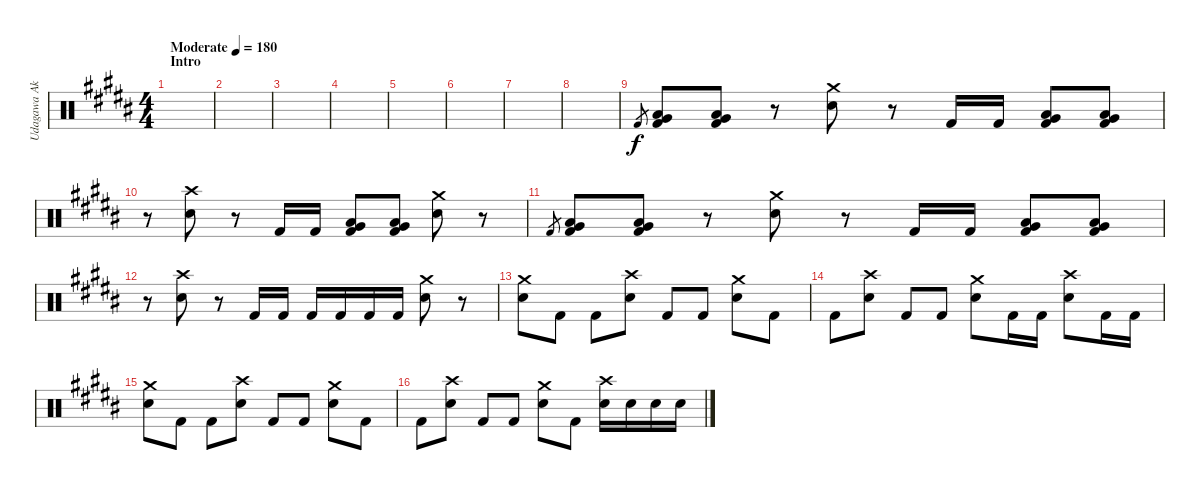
\track ("Udagawa Ako" "Udagawa Ak") {instrument percussion}
\staff {score}
\articulation defaults
\ts (4 4)
\section ("" "Intro")
\tempo (180 "Moderate")
\clef neutral
\ks b
|
|
|
|
|
|
|
|
"Kick (hit) 2".8{gr} ("Very Low Tom (hit)" "Low Floor Tom (hit)" "Kick (hit) 2").8{bu 60} ("Very Low Tom (hit)" "Low Floor Tom (hit)" "Kick (hit) 2").8{bu 60} r.8 ("Crash medium (hit)" "Electric Snare (hit)").8 r.8 "Kick (hit) 2".16 "Kick (hit) 2".16 ("Very Low Tom (hit)" "Low Floor Tom (hit)" "Kick (hit) 2").8{bu 60} ("Very Low Tom (hit)" "Low Floor Tom (hit)" "Kick (hit) 2").8{bu 60} |
r.8 ("Crash high (hit)" "Electric Snare (hit)").8 r.8 "Kick (hit) 2".16 "Kick (hit) 2".16 ("Very Low Tom (hit)" "Low Floor Tom (hit)" "Kick (hit) 2").8{bu 60} ("Very Low Tom (hit)" "Low Floor Tom (hit)" "Kick (hit) 2").8{bu 60} ("Crash medium (hit)" "Electric Snare (hit)").8 r.8 |
"Kick (hit) 2".8{gr} ("Very Low Tom (hit)" "Low Floor Tom (hit)" "Kick (hit) 2").8{bu 60} ("Very Low Tom (hit)" "Low Floor Tom (hit)" "Kick (hit) 2").8{bu 60} r.8 ("Crash medium (hit)" "Electric Snare (hit)").8 r.8 "Kick (hit) 2".16 "Kick (hit) 2".16 ("Very Low Tom (hit)" "Low Floor Tom (hit)" "Kick (hit) 2").8{bu 60} ("Very Low Tom (hit)" "Low Floor Tom (hit)" "Kick (hit) 2").8{bu 60} |
r.8 ("Crash high (hit)" "Electric Snare (hit)").8 r.8 "Kick (hit) 2".16 "Kick (hit) 2".16 "Kick (hit) 2".16 "Kick (hit) 2".16 "Kick (hit) 2".16 "Kick (hit) 2".16 ("Crash medium (hit)" "Electric Snare (hit)").8 r.8 |
("Crash medium (hit)" "Electric Snare (hit)").8 "Kick (hit) 2".8 "Kick (hit) 2".8 ("Crash high (hit)" "Electric Snare (hit)").8 "Kick (hit) 2".8 "Kick (hit) 2".8 ("Crash medium (hit)" "Electric Snare (hit)").8 "Kick (hit) 2".8 |
"Kick (hit) 2".8 ("Crash high (hit)" "Electric Snare (hit)").8 "Kick (hit) 2".8 "Kick (hit) 2".8 ("Crash medium (hit)" "Electric Snare (hit)").8 "Kick (hit) 2".16 "Kick (hit) 2".16 ("Crash high (hit)" "Electric Snare (hit)").8 "Kick (hit) 2".16 "Kick (hit) 2".16 |
("Crash medium (hit)" "Electric Snare (hit)").8 "Kick (hit) 2".8 "Kick (hit) 2".8 ("Crash high (hit)" "Electric Snare (hit)").8 "Kick (hit) 2".8 "Kick (hit) 2".8 ("Crash medium (hit)" "Electric Snare (hit)").8 "Kick (hit) 2".8 |
"Kick (hit) 2".8 ("Crash high (hit)" "Electric Snare (hit)").8 "Kick (hit) 2".8 "Kick (hit) 2".8 ("Crash medium (hit)" "Electric Snare (hit)").8 "Kick (hit) 2".8 ("Crash high (hit)" "Electric Snare (hit)").16 "Electric Snare (hit)".16 "Electric Snare (hit)".16 "Electric Snare (hit)".16
